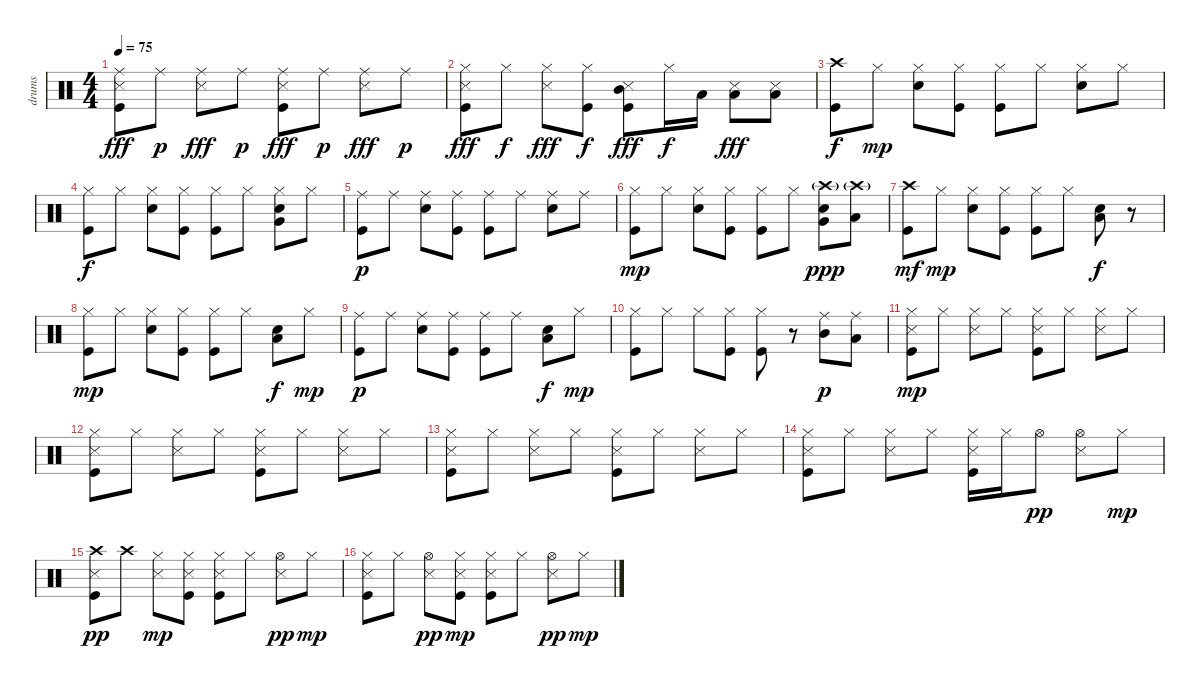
\track ("drums" "drums") {instrument percussion}
\staff {score}
\articulation defaults
\ts (4 4)
\tempo 75
\clef neutral
\ks c
("Ride (middle)" "Metronome (hit)" "Kick (hit)").8{dy fff} "Ride (middle)".8{dy p} ("Ride (middle)" "Metronome (hit)").8{dy fff} "Ride (middle)".8{dy p} ("Ride (middle)" "Metronome (hit)" "Kick (hit)").8{dy fff} "Ride (middle)".8{dy p} ("Ride (middle)" "Metronome (hit)").8{dy fff} "Ride (middle)".8{dy p} |
("Metronome (hit)" "Hi-Hat (closed)" "Kick (hit)").8{dy fff} "Hi-Hat (closed)".8{dy f} ("Metronome (hit)" "Hi-Hat (closed)").8{dy fff} ("Hi-Hat (closed)" "Kick (hit)").8{dy f} ("Mid Tom (hit)" "Metronome (hit)" "Kick (hit)").8{dy fff} "Hi-Hat (closed)".16{dy f} "Low Tom (hit)".16 ("Low Tom (hit)" "Metronome (hit)").8{dy fff} ("Low Tom (hit)" "Metronome (hit)").8 |
("Crash high (hit)" "Kick (hit)").8{dy f} "Hi-Hat (closed)".8{dy mp} ("Snare (hit) 2" "Hi-Hat (closed)").8 ("Hi-Hat (closed)" "Kick (hit)").8 ("Hi-Hat (closed)" "Kick (hit)").8 "Hi-Hat (closed)".8 ("Snare (hit) 2" "Hi-Hat (closed)").8 "Hi-Hat (closed)".8 |
("Hi-Hat (closed)" "Kick (hit)").8{dy f} "Hi-Hat (closed)".8 ("Snare (hit) 2" "Hi-Hat (closed)").8 ("Hi-Hat (closed)" "Kick (hit)").8 ("Hi-Hat (closed)" "Kick (hit)").8 "Hi-Hat (closed)".8 ("Very Low Tom (hit)" "Snare (hit) 2" "Hi-Hat (closed)").8 "Hi-Hat (closed)".8 |
("Ride (middle)" "Kick (hit)").8{dy p} "Ride (middle)".8 ("Ride (middle)" "Snare (hit) 2").8 ("Ride (middle)" "Kick (hit)").8 ("Ride (middle)" "Kick (hit)").8 "Ride (middle)".8 ("Ride (middle)" "Snare (hit) 2").8 "Ride (middle)".8 |
("Hi-Hat (closed)" "Kick (hit)").8{dy mp} "Hi-Hat (closed)".8 ("Snare (hit) 2" "Hi-Hat (closed)").8 ("Hi-Hat (closed)" "Kick (hit)").8 ("Hi-Hat (closed)" "Kick (hit)").8 "Hi-Hat (closed)".8 ("Crash high (hit)"{g} "Very Low Tom (hit)" "Snare (hit) 2").8{dy ppp} ("Crash high (hit)"{g} "Low Tom (hit)").8 |
("Crash high (hit)" "Kick (hit)").8{dy mf} "Hi-Hat (closed)".8{dy mp} ("Snare (hit) 2" "Hi-Hat (closed)").8 ("Hi-Hat (closed)" "Kick (hit)").8 ("Hi-Hat (closed)" "Kick (hit)").8 "Hi-Hat (closed)".8 ("Low Tom (hit)" "Snare (hit) 2").8{dy f} r.8 |
("Hi-Hat (closed)" "Kick (hit)").8{dy mp} "Hi-Hat (closed)".8 ("Snare (hit) 2" "Hi-Hat (closed)").8 ("Hi-Hat (closed)" "Kick (hit)").8 ("Hi-Hat (closed)" "Kick (hit)").8 "Hi-Hat (closed)".8 ("Low Tom (hit)" "Snare (hit) 2").8{dy f} "Hi-Hat (closed)".8{dy mp} |
("Ride (middle)" "Kick (hit)").8{dy p} "Ride (middle)".8 ("Ride (middle)" "Snare (hit) 2").8 ("Ride (middle)" "Kick (hit)").8 ("Ride (middle)" "Kick (hit)").8 "Ride (middle)".8 ("Low Tom (hit)" "Snare (hit) 2").8{dy f} "Hi-Hat (closed)".8{dy mp} |
("Hi-Hat (closed)" "Kick (hit)").8 "Hi-Hat (closed)".8 "Hi-Hat (closed)".8 ("Hi-Hat (closed)" "Kick (hit)").8 ("Hi-Hat (closed)" "Kick (hit)").8 r.8 ("Ride (middle)" "Mid Tom (hit)").8{dy p} ("Ride (middle)" "Low Tom (hit)").8 |
("Metronome (hit)" "Hi-Hat (closed)" "Kick (hit)").8{dy mp} "Hi-Hat (closed)".8 ("Metronome (hit)" "Hi-Hat (closed)").8 "Hi-Hat (closed)".8 ("Metronome (hit)" "Hi-Hat (closed)" "Kick (hit)").8 "Hi-Hat (closed)".8 ("Metronome (hit)" "Hi-Hat (closed)").8 "Hi-Hat (closed)".8 |
("Metronome (hit)" "Hi-Hat (closed)" "Kick (hit)").8 "Hi-Hat (closed)".8 ("Metronome (hit)" "Hi-Hat (closed)").8 "Hi-Hat (closed)".8 ("Metronome (hit)" "Hi-Hat (closed)" "Kick (hit)").8 "Hi-Hat (closed)".8 ("Metronome (hit)" "Hi-Hat (closed)").8 "Hi-Hat (closed)".8 |
("Metronome (hit)" "Hi-Hat (closed)" "Kick (hit)").8 "Hi-Hat (closed)".8 ("Metronome (hit)" "Hi-Hat (closed)").8 "Hi-Hat (closed)".8 ("Metronome (hit)" "Hi-Hat (closed)" "Kick (hit)").8 "Hi-Hat (closed)".8 ("Metronome (hit)" "Hi-Hat (closed)").8 "Hi-Hat (closed)".8 |
("Metronome (hit)" "Hi-Hat (closed)" "Kick (hit)").8 "Hi-Hat (closed)".8 ("Metronome (hit)" "Hi-Hat (closed)").8 "Hi-Hat (closed)".8 ("Metronome (hit)" "Hi-Hat (closed)" "Kick (hit)").16 "Hi-Hat (closed)".16 "Hi-Hat (open)".8{dy pp} ("Metronome (hit)" "Hi-Hat (open)").8 "Hi-Hat (closed)".8{dy mp} |
("Crash high (hit)" "Metronome (hit)" "Kick (hit)").8{dy pp} "Crash high (hit)".8 ("Metronome (hit)" "Hi-Hat (closed)").8{dy mp} ("Metronome (hit)" "Hi-Hat (closed)" "Kick (hit)").8 ("Metronome (hit)" "Hi-Hat (closed)" "Kick (hit)").8 "Hi-Hat (closed)".8 ("Metronome (hit)" "Hi-Hat (open)").8{dy pp} "Hi-Hat (closed)".8{dy mp} |
("Metronome (hit)" "Hi-Hat (closed)" "Kick (hit)").8 "Hi-Hat (closed)".8 ("Metronome (hit)" "Hi-Hat (open)").8{dy pp} ("Metronome (hit)" "Hi-Hat (closed)" "Kick (hit)").8{dy mp} ("Metronome (hit)" "Hi-Hat (closed)" "Kick (hit)").8 "Hi-Hat (closed)".8 ("Metronome (hit)" "Hi-Hat (open)").8{dy pp} "Hi-Hat (closed)".8{dy mp}
